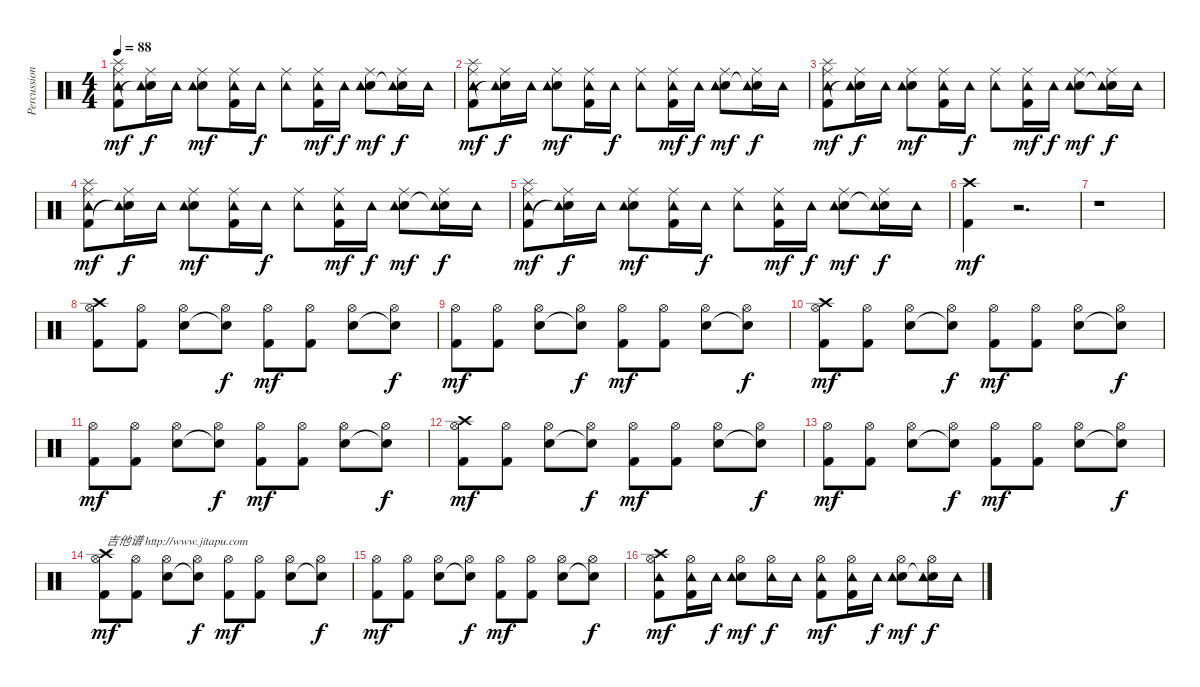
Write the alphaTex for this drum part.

\track ("Percussions" "Percussion") {instrument percussion}
\staff {score}
\articulation defaults
\ts (4 4)
\tempo 88
\clef neutral
\ks c
("Kick (hit) 2" "Ride (middle)" "Tambourine (hit)" "Splash (hit)").8{dy mf} ("Snare (hit)"{t} "Ride (middle)" "Tambourine (hit)").16{dy f} "Tambourine (hit)".16 ("Snare (hit) 2" "Ride (middle)" "Tambourine (hit)").8{dy mf} ("Kick (hit) 2" "Ride (middle)" "Tambourine (hit)").16 "Tambourine (hit)".16{dy f} ("Ride (middle)" "Tambourine (hit)").8 ("Kick (hit) 2" "Ride (middle)" "Tambourine (hit)").16{dy mf} "Tambourine (hit)".16{dy f} ("Snare (hit) 2" "Ride (middle)" "Tambourine (hit)").8{dy mf} ("Snare (hit)"{t} "Ride (middle)" "Tambourine (hit)").16{dy f} "Tambourine (hit)".16 |
("Kick (hit) 2" "Ride (middle)" "Tambourine (hit)" "Splash (hit)").8{dy mf} ("Snare (hit)"{t} "Ride (middle)" "Tambourine (hit)").16{dy f} "Tambourine (hit)".16 ("Snare (hit) 2" "Ride (middle)" "Tambourine (hit)").8{dy mf} ("Kick (hit) 2" "Ride (middle)" "Tambourine (hit)").16 "Tambourine (hit)".16{dy f} ("Ride (middle)" "Tambourine (hit)").8 ("Kick (hit) 2" "Ride (middle)" "Tambourine (hit)").16{dy mf} "Tambourine (hit)".16{dy f} ("Snare (hit) 2" "Ride (middle)" "Tambourine (hit)").8{dy mf} ("Snare (hit)"{t} "Ride (middle)" "Tambourine (hit)").16{dy f} "Tambourine (hit)".16 |
("Kick (hit) 2" "Ride (middle)" "Tambourine (hit)" "Splash (hit)").8{dy mf} ("Snare (hit)"{t} "Ride (middle)" "Tambourine (hit)").16{dy f} "Tambourine (hit)".16 ("Snare (hit) 2" "Ride (middle)" "Tambourine (hit)").8{dy mf} ("Kick (hit) 2" "Ride (middle)" "Tambourine (hit)").16 "Tambourine (hit)".16{dy f} ("Ride (middle)" "Tambourine (hit)").8 ("Kick (hit) 2" "Ride (middle)" "Tambourine (hit)").16{dy mf} "Tambourine (hit)".16{dy f} ("Snare (hit) 2" "Ride (middle)" "Tambourine (hit)").8{dy mf} ("Snare (hit)"{t} "Ride (middle)" "Tambourine (hit)").16{dy f} "Tambourine (hit)".16 |
("Kick (hit) 2" "Ride (middle)" "Tambourine (hit)" "Splash (hit)").8{dy mf} ("Snare (hit)"{t} "Ride (middle)" "Tambourine (hit)").16{dy f} "Tambourine (hit)".16 ("Snare (hit) 2" "Ride (middle)" "Tambourine (hit)").8{dy mf} ("Kick (hit) 2" "Ride (middle)" "Tambourine (hit)").16 "Tambourine (hit)".16{dy f} ("Ride (middle)" "Tambourine (hit)").8 ("Kick (hit) 2" "Ride (middle)" "Tambourine (hit)").16{dy mf} "Tambourine (hit)".16{dy f} ("Snare (hit) 2" "Ride (middle)" "Tambourine (hit)").8{dy mf} ("Snare (hit)"{t} "Ride (middle)" "Tambourine (hit)").16{dy f} "Tambourine (hit)".16 |
("Kick (hit) 2" "Ride (middle)" "Tambourine (hit)" "Splash (hit)").8{dy mf} ("Snare (hit)"{t} "Ride (middle)" "Tambourine (hit)").16{dy f} "Tambourine (hit)".16 ("Snare (hit) 2" "Ride (middle)" "Tambourine (hit)").8{dy mf} ("Kick (hit) 2" "Ride (middle)" "Tambourine (hit)").16 "Tambourine (hit)".16{dy f} ("Ride (middle)" "Tambourine (hit)").8 ("Kick (hit) 2" "Ride (middle)" "Tambourine (hit)").16{dy mf} "Tambourine (hit)".16{dy f} ("Snare (hit) 2" "Ride (middle)" "Tambourine (hit)").8{dy mf} ("Snare (hit)"{t} "Ride (middle)" "Tambourine (hit)").16{dy f} "Tambourine (hit)".16 |
("Kick (hit) 2" "Crash high (hit)").4{dy mf} r.2{d} |
r.1 |
("Kick (hit) 2" "Hi-Hat (open)" "Crash high (hit)").8 ("Kick (hit) 2" "Hi-Hat (open)").8 ("Snare (hit) 2" "Hi-Hat (open)").8 ("Snare (hit)"{t} "Hi-Hat (open)").8{dy f} ("Kick (hit) 2" "Hi-Hat (open)").8{dy mf} ("Kick (hit) 2" "Hi-Hat (open)").8 ("Snare (hit) 2" "Hi-Hat (open)").8 ("Snare (hit)"{t} "Hi-Hat (open)").8{dy f} |
("Kick (hit) 2" "Hi-Hat (open)").8{dy mf} ("Kick (hit) 2" "Hi-Hat (open)").8 ("Snare (hit) 2" "Hi-Hat (open)").8 ("Snare (hit)"{t} "Hi-Hat (open)").8{dy f} ("Kick (hit) 2" "Hi-Hat (open)").8{dy mf} ("Kick (hit) 2" "Hi-Hat (open)").8 ("Snare (hit) 2" "Hi-Hat (open)").8 ("Snare (hit)"{t} "Hi-Hat (open)").8{dy f} |
("Kick (hit) 2" "Hi-Hat (open)" "Crash high (hit)").8{dy mf} ("Kick (hit) 2" "Hi-Hat (open)").8 ("Snare (hit) 2" "Hi-Hat (open)").8 ("Snare (hit)"{t} "Hi-Hat (open)").8{dy f} ("Kick (hit) 2" "Hi-Hat (open)").8{dy mf} ("Kick (hit) 2" "Hi-Hat (open)").8 ("Snare (hit) 2" "Hi-Hat (open)").8 ("Snare (hit)"{t} "Hi-Hat (open)").8{dy f} |
("Kick (hit) 2" "Hi-Hat (open)").8{dy mf} ("Kick (hit) 2" "Hi-Hat (open)").8 ("Snare (hit) 2" "Hi-Hat (open)").8 ("Snare (hit)"{t} "Hi-Hat (open)").8{dy f} ("Kick (hit) 2" "Hi-Hat (open)").8{dy mf} ("Kick (hit) 2" "Hi-Hat (open)").8 ("Snare (hit) 2" "Hi-Hat (open)").8 ("Snare (hit)"{t} "Hi-Hat (open)").8{dy f} |
("Kick (hit) 2" "Hi-Hat (open)" "Crash high (hit)").8{dy mf} ("Kick (hit) 2" "Hi-Hat (open)").8 ("Snare (hit) 2" "Hi-Hat (open)").8 ("Snare (hit)"{t} "Hi-Hat (open)").8{dy f} ("Kick (hit) 2" "Hi-Hat (open)").8{dy mf} ("Kick (hit) 2" "Hi-Hat (open)").8 ("Snare (hit) 2" "Hi-Hat (open)").8 ("Snare (hit)"{t} "Hi-Hat (open)").8{dy f} |
("Kick (hit) 2" "Hi-Hat (open)").8{dy mf} ("Kick (hit) 2" "Hi-Hat (open)").8 ("Snare (hit) 2" "Hi-Hat (open)").8 ("Snare (hit)"{t} "Hi-Hat (open)").8{dy f} ("Kick (hit) 2" "Hi-Hat (open)").8{dy mf} ("Kick (hit) 2" "Hi-Hat (open)").8 ("Snare (hit) 2" "Hi-Hat (open)").8 ("Snare (hit)"{t} "Hi-Hat (open)").8{dy f} |
("Kick (hit) 2" "Hi-Hat (open)" "Crash high (hit)").8{txt "吉他谱 http://www.jitapu.com" dy mf} ("Kick (hit) 2" "Hi-Hat (open)").8 ("Snare (hit) 2" "Hi-Hat (open)").8 ("Snare (hit)"{t} "Hi-Hat (open)").8{dy f} ("Kick (hit) 2" "Hi-Hat (open)").8{dy mf} ("Kick (hit) 2" "Hi-Hat (open)").8 ("Snare (hit) 2" "Hi-Hat (open)").8 ("Snare (hit)"{t} "Hi-Hat (open)").8{dy f} |
("Kick (hit) 2" "Hi-Hat (open)").8{dy mf} ("Kick (hit) 2" "Hi-Hat (open)").8 ("Snare (hit) 2" "Hi-Hat (open)").8 ("Snare (hit)"{t} "Hi-Hat (open)").8{dy f} ("Kick (hit) 2" "Hi-Hat (open)").8{dy mf} ("Kick (hit) 2" "Hi-Hat (open)").8 ("Snare (hit) 2" "Hi-Hat (open)").8 ("Snare (hit)"{t} "Hi-Hat (open)").8{dy f} |
("Kick (hit) 2" "Hi-Hat (open)" "Tambourine (hit)" "Crash high (hit)").8{dy mf} ("Kick (hit) 2" "Hi-Hat (open)" "Tambourine (hit)").16 "Tambourine (hit)".16{dy f} ("Snare (hit) 2" "Hi-Hat (open)" "Tambourine (hit)").8{dy mf} ("Hi-Hat (open)" "Tambourine (hit)").16{dy f} "Tambourine (hit)".16 ("Kick (hit) 2" "Hi-Hat (open)" "Tambourine (hit)").8{dy mf} ("Kick (hit) 2" "Hi-Hat (open)" "Tambourine (hit)").16 "Tambourine (hit)".16{dy f} ("Snare (hit) 2" "Hi-Hat (open)" "Tambourine (hit)").8{dy mf} ("Snare (hit)"{t} "Hi-Hat (open)" "Tambourine (hit)").16{dy f} "Tambourine (hit)".16
